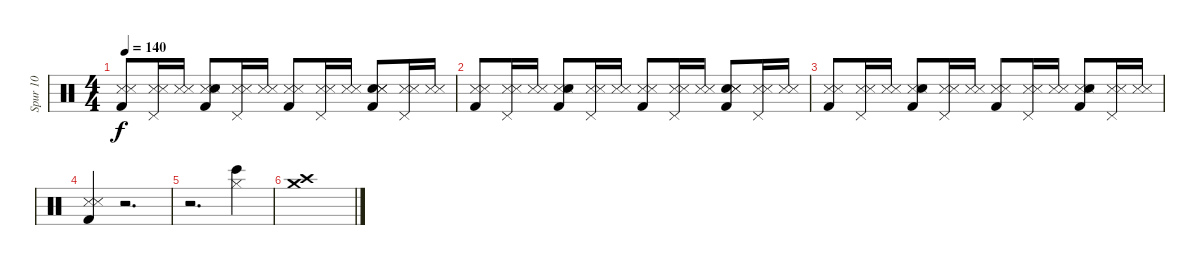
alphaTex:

\track ("Spur 10" "Spur 10") {instrument percussion}
\staff {score}
\articulation defaults
\ts (4 4)
\tempo 140
\clef neutral
\ks c
("Snare (side stick) 3" "Metronome (hit)" "Kick (hit) 2").8{dy f} ("Pedal Hi-Hat (hit)" "Snare (side stick) 3" "Metronome (hit)").16 ("Snare (side stick) 3" "Metronome (hit)").16 ("Snare (side stick) 3" "Snare (hit) 2" "Metronome (hit)" "Kick (hit) 2").8 ("Pedal Hi-Hat (hit)" "Snare (side stick) 3" "Metronome (hit)").16 ("Snare (side stick) 3" "Metronome (hit)").16 ("Snare (side stick) 3" "Metronome (hit)" "Kick (hit) 2").8 ("Snare (side stick) 3" "Pedal Hi-Hat (hit)" "Metronome (hit)").16 ("Snare (side stick) 3" "Metronome (hit)").16 ("Snare (hit) 2" "Snare (side stick) 3" "Metronome (hit)" "Kick (hit) 2").8 ("Pedal Hi-Hat (hit)" "Snare (side stick) 3" "Metronome (hit)").16 ("Snare (side stick) 3" "Metronome (hit)").16 |
("Snare (side stick) 3" "Metronome (hit)" "Kick (hit) 2").8 ("Pedal Hi-Hat (hit)" "Snare (side stick) 3" "Metronome (hit)").16 ("Snare (side stick) 3" "Metronome (hit)").16 ("Snare (side stick) 3" "Snare (hit) 2" "Metronome (hit)" "Kick (hit) 2").8 ("Pedal Hi-Hat (hit)" "Snare (side stick) 3" "Metronome (hit)").16 ("Snare (side stick) 3" "Metronome (hit)").16 ("Snare (side stick) 3" "Metronome (hit)" "Kick (hit) 2").8 ("Pedal Hi-Hat (hit)" "Snare (side stick) 3" "Metronome (hit)").16 ("Snare (side stick) 3" "Metronome (hit)").16 ("Snare (hit) 2" "Snare (side stick) 3" "Metronome (hit)" "Kick (hit) 2").8 ("Snare (side stick) 3" "Pedal Hi-Hat (hit)" "Metronome (hit)").16 ("Snare (side stick) 3" "Metronome (hit)").16 |
("Snare (side stick) 3" "Metronome (hit)" "Kick (hit) 2").8 ("Pedal Hi-Hat (hit)" "Snare (side stick) 3" "Metronome (hit)").16 ("Snare (side stick) 3" "Metronome (hit)").16 ("Snare (side stick) 3" "Snare (hit) 2" "Metronome (hit)" "Kick (hit) 2").8 ("Pedal Hi-Hat (hit)" "Snare (side stick) 3" "Metronome (hit)").16 ("Snare (side stick) 3" "Metronome (hit)").16 ("Snare (side stick) 3" "Metronome (hit)" "Kick (hit) 2").8 ("Pedal Hi-Hat (hit)" "Snare (side stick) 3" "Metronome (hit)").16 ("Snare (side stick) 3" "Metronome (hit)").16 ("Snare (side stick) 3" "Snare (hit) 2" "Metronome (hit)" "Kick (hit) 2").8 ("Snare (side stick) 3" "Pedal Hi-Hat (hit)" "Metronome (hit)").16 ("Snare (side stick) 3" "Metronome (hit)").16 |
("Snare (side stick) 3" "Metronome (hit)" "Kick (hit) 2").4 r.2{d} |
r.2{d} ("Hi-Hat (closed)" "Bongo High (hit)").4 |
("Crash medium (hit)" "Crash high (hit)").1
